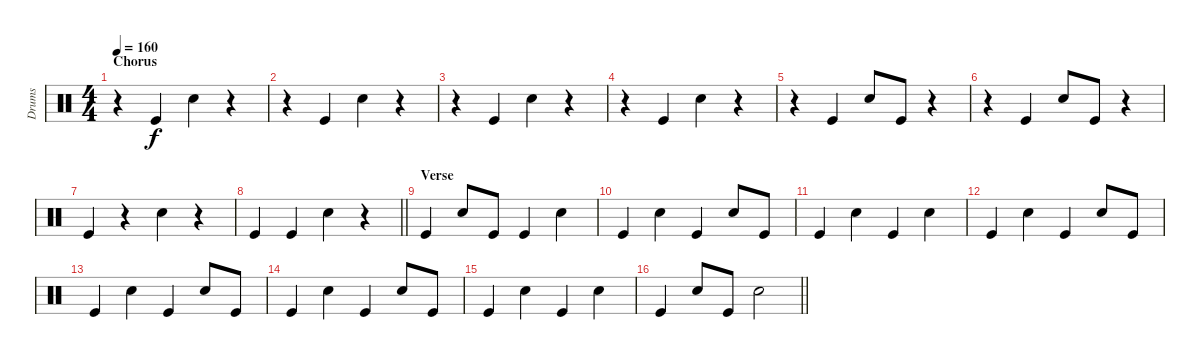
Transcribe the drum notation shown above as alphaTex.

\track ("Drums" "Drums") {instrument percussion}
\staff {score}
\articulation defaults
\ts (4 4)
\section ("" "Chorus")
\tempo 160
\clef neutral
\ks c
r.4{dy f} "Kick (hit)".4 "Snare (hit) 2".4 r.4 |
r.4 "Kick (hit)".4 "Snare (hit) 2".4 r.4 |
r.4 "Kick (hit)".4 "Snare (hit) 2".4 r.4 |
r.4 "Kick (hit)".4 "Snare (hit) 2".4 r.4 |
r.4 "Kick (hit)".4 "Snare (hit) 2".8 "Kick (hit)".8 r.4 |
r.4 "Kick (hit)".4 "Snare (hit) 2".8 "Kick (hit)".8 r.4 |
"Kick (hit)".4 r.4 "Snare (hit) 2".4 r.4 |
\barLineRight lightlight "Kick (hit)".4 "Kick (hit)".4 "Snare (hit) 2".4
r.4 |
\section ("" "Verse")
"Kick (hit)".4 "Snare (hit) 2".8 "Kick (hit)".8 "Kick (hit)".4 "Snare (hit) 2".4 |
"Kick (hit)".4 "Snare (hit) 2".4 "Kick (hit)".4 "Snare (hit) 2".8 "Kick (hit)".8 |
"Kick (hit)".4 "Snare (hit) 2".4 "Kick (hit)".4 "Snare (hit) 2".4 |
"Kick (hit)".4 "Snare (hit) 2".4 "Kick (hit)".4 "Snare (hit) 2".8 "Kick (hit)".8 |
"Kick (hit)".4 "Snare (hit) 2".4 "Kick (hit)".4 "Snare (hit) 2".8 "Kick (hit)".8 |
"Kick (hit)".4 "Snare (hit) 2".4 "Kick (hit)".4 "Snare (hit) 2".8 "Kick (hit)".8 |
"Kick (hit)".4 "Snare (hit) 2".4 "Kick (hit)".4 "Snare (hit) 2".4 |
\barLineRight lightlight "Kick (hit)".4 "Snare (hit) 2".8 "Kick (hit)".8 "Snare (hit) 2".2
